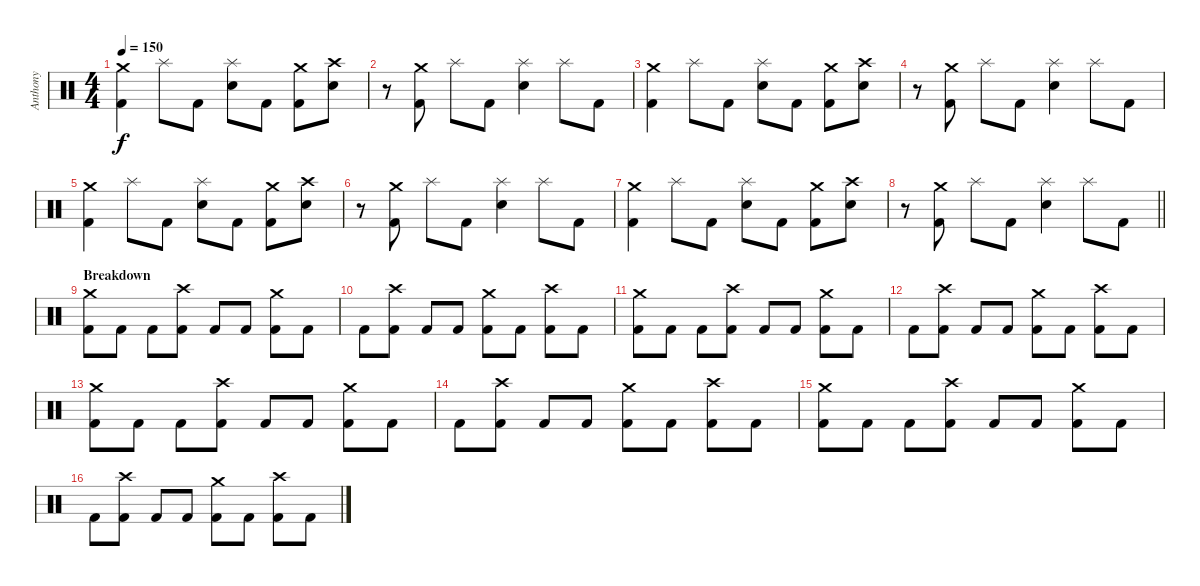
\track ("Anthony" "Anthony") {instrument percussion}
\staff {score}
\articulation defaults
\ts (4 4)
\tempo 150
\clef neutral
\ks c
("Crash medium (hit)" "Kick (hit) 2").4{dy f} "Splash (hit)".8 "Kick (hit) 2".8 ("Splash (hit)" "Electric Snare (hit)").8 "Kick (hit) 2".8 ("Crash medium (hit)" "Kick (hit) 2").8 ("Crash high (hit)" "Electric Snare (hit)").8 |
r.8 ("Crash medium (hit)" "Kick (hit) 2").8 "Splash (hit)".8 "Kick (hit) 2".8 ("Splash (hit)" "Electric Snare (hit)").4 "Splash (hit)".8 "Kick (hit) 2".8 |
("Crash medium (hit)" "Kick (hit) 2").4 "Splash (hit)".8 "Kick (hit) 2".8 ("Splash (hit)" "Electric Snare (hit)").8 "Kick (hit) 2".8 ("Crash medium (hit)" "Kick (hit) 2").8 ("Crash high (hit)" "Electric Snare (hit)").8 |
r.8 ("Crash medium (hit)" "Kick (hit) 2").8 "Splash (hit)".8 "Kick (hit) 2".8 ("Splash (hit)" "Electric Snare (hit)").4 "Splash (hit)".8 "Kick (hit) 2".8 |
("Crash medium (hit)" "Kick (hit) 2").4 "Splash (hit)".8 "Kick (hit) 2".8 ("Splash (hit)" "Electric Snare (hit)").8 "Kick (hit) 2".8 ("Crash medium (hit)" "Kick (hit) 2").8 ("Crash high (hit)" "Electric Snare (hit)").8 |
r.8 ("Crash medium (hit)" "Kick (hit) 2").8 "Splash (hit)".8 "Kick (hit) 2".8 ("Splash (hit)" "Electric Snare (hit)").4 "Splash (hit)".8 "Kick (hit) 2".8 |
("Crash medium (hit)" "Kick (hit) 2").4 "Splash (hit)".8 "Kick (hit) 2".8 ("Splash (hit)" "Electric Snare (hit)").8 "Kick (hit) 2".8 ("Crash medium (hit)" "Kick (hit) 2").8 ("Crash high (hit)" "Electric Snare (hit)").8 |
\barLineRight lightlight
r.8 ("Crash medium (hit)" "Kick (hit) 2").8 "Splash (hit)".8 "Kick (hit) 2".8 ("Splash (hit)" "Electric Snare (hit)").4 "Splash (hit)".8 "Kick (hit) 2".8 |
\section ("" "Breakdown")
("Crash medium (hit)" "Kick (hit) 2").8 "Kick (hit) 2".8 "Kick (hit) 2".8 ("Crash high (hit)" "Kick (hit) 2").8 "Kick (hit) 2".8 "Kick (hit) 2".8 ("Crash medium (hit)" "Kick (hit) 2").8 "Kick (hit) 2".8 |
"Kick (hit) 2".8 ("Crash high (hit)" "Kick (hit) 2").8 "Kick (hit) 2".8 "Kick (hit) 2".8 ("Crash medium (hit)" "Kick (hit) 2").8 "Kick (hit) 2".8 ("Crash high (hit)" "Kick (hit) 2").8 "Kick (hit) 2".8 |
("Crash medium (hit)" "Kick (hit) 2").8 "Kick (hit) 2".8 "Kick (hit) 2".8 ("Crash high (hit)" "Kick (hit) 2").8 "Kick (hit) 2".8 "Kick (hit) 2".8 ("Crash medium (hit)" "Kick (hit) 2").8 "Kick (hit) 2".8 |
"Kick (hit) 2".8 ("Crash high (hit)" "Kick (hit) 2").8 "Kick (hit) 2".8 "Kick (hit) 2".8 ("Crash medium (hit)" "Kick (hit) 2").8 "Kick (hit) 2".8 ("Crash high (hit)" "Kick (hit) 2").8 "Kick (hit) 2".8 |
("Crash medium (hit)" "Kick (hit) 2").8 "Kick (hit) 2".8 "Kick (hit) 2".8 ("Crash high (hit)" "Kick (hit) 2").8 "Kick (hit) 2".8 "Kick (hit) 2".8 ("Crash medium (hit)" "Kick (hit) 2").8 "Kick (hit) 2".8 |
"Kick (hit) 2".8 ("Crash high (hit)" "Kick (hit) 2").8 "Kick (hit) 2".8 "Kick (hit) 2".8 ("Crash medium (hit)" "Kick (hit) 2").8 "Kick (hit) 2".8 ("Crash high (hit)" "Kick (hit) 2").8 "Kick (hit) 2".8 |
("Crash medium (hit)" "Kick (hit) 2").8 "Kick (hit) 2".8 "Kick (hit) 2".8 ("Crash high (hit)" "Kick (hit) 2").8 "Kick (hit) 2".8 "Kick (hit) 2".8 ("Crash medium (hit)" "Kick (hit) 2").8 "Kick (hit) 2".8 |
"Kick (hit) 2".8 ("Crash high (hit)" "Kick (hit) 2").8 "Kick (hit) 2".8 "Kick (hit) 2".8 ("Crash medium (hit)" "Kick (hit) 2").8 "Kick (hit) 2".8 ("Crash high (hit)" "Kick (hit) 2").8 "Kick (hit) 2".8
